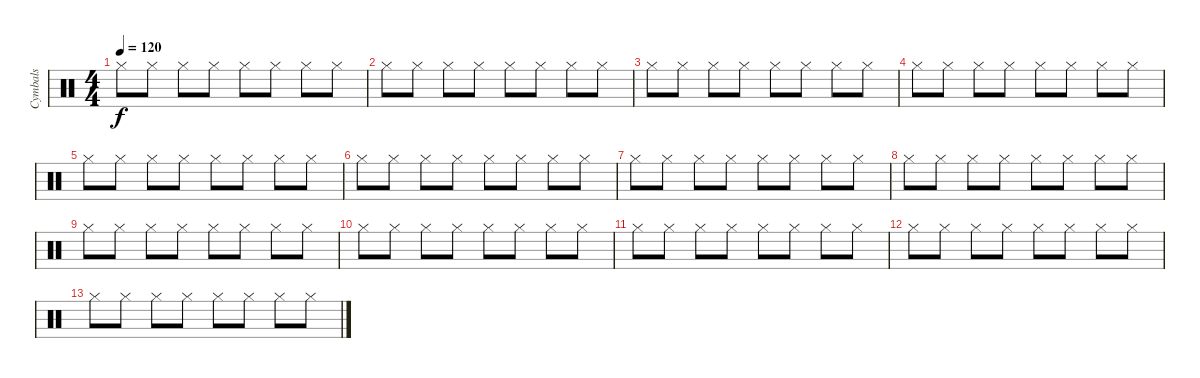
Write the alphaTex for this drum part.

\track ("Cymbals" "Cymbals") {instrument percussion}
\staff {score}
\articulation defaults
\ts (4 4)
\tempo 120
\clef neutral
\ks c "Hi-Hat (closed)".8{dy f} "Hi-Hat (closed)".8 "Hi-Hat (closed)".8 "Hi-Hat (closed)".8 "Hi-Hat (closed)".8 "Hi-Hat (closed)".8 "Hi-Hat (closed)".8 "Hi-Hat (closed)".8
|
"Hi-Hat (closed)".8 "Hi-Hat (closed)".8 "Hi-Hat (closed)".8 "Hi-Hat (closed)".8 "Hi-Hat (closed)".8 "Hi-Hat (closed)".8 "Hi-Hat (closed)".8 "Hi-Hat (closed)".8 |
"Hi-Hat (closed)".8 "Hi-Hat (closed)".8 "Hi-Hat (closed)".8 "Hi-Hat (closed)".8 "Hi-Hat (closed)".8 "Hi-Hat (closed)".8 "Hi-Hat (closed)".8 "Hi-Hat (closed)".8 |
"Hi-Hat (closed)".8 "Hi-Hat (closed)".8 "Hi-Hat (closed)".8 "Hi-Hat (closed)".8 "Hi-Hat (closed)".8 "Hi-Hat (closed)".8 "Hi-Hat (closed)".8 "Hi-Hat (closed)".8 |
"Hi-Hat (closed)".8 "Hi-Hat (closed)".8 "Hi-Hat (closed)".8 "Hi-Hat (closed)".8 "Hi-Hat (closed)".8 "Hi-Hat (closed)".8 "Hi-Hat (closed)".8 "Hi-Hat (closed)".8 |
"Hi-Hat (closed)".8 "Hi-Hat (closed)".8 "Hi-Hat (closed)".8 "Hi-Hat (closed)".8 "Hi-Hat (closed)".8 "Hi-Hat (closed)".8 "Hi-Hat (closed)".8 "Hi-Hat (closed)".8 |
"Hi-Hat (closed)".8 "Hi-Hat (closed)".8 "Hi-Hat (closed)".8 "Hi-Hat (closed)".8 "Hi-Hat (closed)".8 "Hi-Hat (closed)".8 "Hi-Hat (closed)".8 "Hi-Hat (closed)".8 |
"Hi-Hat (closed)".8 "Hi-Hat (closed)".8 "Hi-Hat (closed)".8 "Hi-Hat (closed)".8 "Hi-Hat (closed)".8 "Hi-Hat (closed)".8 "Hi-Hat (closed)".8 "Hi-Hat (closed)".8 |
"Hi-Hat (closed)".8 "Hi-Hat (closed)".8 "Hi-Hat (closed)".8 "Hi-Hat (closed)".8 "Hi-Hat (closed)".8 "Hi-Hat (closed)".8 "Hi-Hat (closed)".8 "Hi-Hat (closed)".8 |
"Hi-Hat (closed)".8 "Hi-Hat (closed)".8 "Hi-Hat (closed)".8 "Hi-Hat (closed)".8 "Hi-Hat (closed)".8 "Hi-Hat (closed)".8 "Hi-Hat (closed)".8 "Hi-Hat (closed)".8 |
"Hi-Hat (closed)".8 "Hi-Hat (closed)".8 "Hi-Hat (closed)".8 "Hi-Hat (closed)".8 "Hi-Hat (closed)".8 "Hi-Hat (closed)".8 "Hi-Hat (closed)".8 "Hi-Hat (closed)".8 |
"Hi-Hat (closed)".8 "Hi-Hat (closed)".8 "Hi-Hat (closed)".8 "Hi-Hat (closed)".8 "Hi-Hat (closed)".8 "Hi-Hat (closed)".8 "Hi-Hat (closed)".8 "Hi-Hat (closed)".8 |
"Hi-Hat (closed)".8 "Hi-Hat (closed)".8 "Hi-Hat (closed)".8 "Hi-Hat (closed)".8 "Hi-Hat (closed)".8 "Hi-Hat (closed)".8 "Hi-Hat (closed)".8 "Hi-Hat (closed)".8
